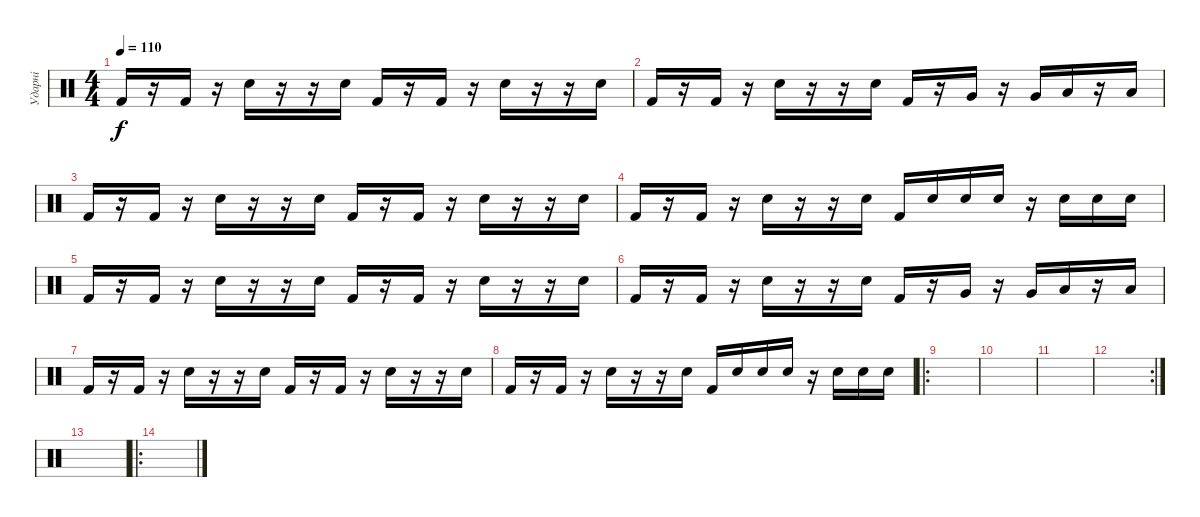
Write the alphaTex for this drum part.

\track ("Ударні" "Ударні") {instrument percussion}
\staff {score}
\articulation defaults
\ts (4 4)
\tempo 110
\clef neutral
\ks c "Kick (hit) 2".16{dy f volume 14}
r.16 "Kick (hit) 2".16 r.16 "Electric Snare (hit)".16 r.16 r.16 "Electric Snare (hit)".16 "Kick (hit) 2".16 r.16 "Kick (hit) 2".16 r.16 "Electric Snare (hit)".16 r.16 r.16 "Electric Snare (hit)".16 |
"Kick (hit) 2".16{volume 14} r.16 "Kick (hit) 2".16 r.16 "Electric Snare (hit)".16 r.16 r.16 "Electric Snare (hit)".16 "Kick (hit) 2".16 r.16 "Very Low Tom (hit)".16 r.16 "Very Low Tom (hit)".16 "Low Floor Tom (hit)".16 r.16 "Low Floor Tom (hit)".16 |
"Kick (hit) 2".16{volume 14} r.16 "Kick (hit) 2".16 r.16 "Electric Snare (hit)".16 r.16 r.16 "Electric Snare (hit)".16 "Kick (hit) 2".16 r.16 "Kick (hit) 2".16 r.16 "Electric Snare (hit)".16 r.16 r.16 "Electric Snare (hit)".16 |
"Kick (hit) 2".16{volume 14} r.16 "Kick (hit) 2".16 r.16 "Electric Snare (hit)".16 r.16 r.16 "Electric Snare (hit)".16 "Kick (hit) 2".16 "Electric Snare (hit)".16 "Electric Snare (hit)".16 "Electric Snare (hit)".16 r.16 "Electric Snare (hit)".16 "Electric Snare (hit)".16 "Electric Snare (hit)".16 |
"Kick (hit) 2".16{volume 14} r.16 "Kick (hit) 2".16 r.16 "Electric Snare (hit)".16 r.16 r.16 "Electric Snare (hit)".16 "Kick (hit) 2".16 r.16 "Kick (hit) 2".16 r.16 "Electric Snare (hit)".16 r.16 r.16 "Electric Snare (hit)".16 |
"Kick (hit) 2".16{volume 14} r.16 "Kick (hit) 2".16 r.16 "Electric Snare (hit)".16 r.16 r.16 "Electric Snare (hit)".16 "Kick (hit) 2".16 r.16 "Very Low Tom (hit)".16 r.16 "Very Low Tom (hit)".16 "Low Floor Tom (hit)".16 r.16 "Low Floor Tom (hit)".16 |
"Kick (hit) 2".16{volume 14} r.16 "Kick (hit) 2".16 r.16 "Electric Snare (hit)".16 r.16 r.16 "Electric Snare (hit)".16 "Kick (hit) 2".16 r.16 "Kick (hit) 2".16 r.16 "Electric Snare (hit)".16 r.16 r.16 "Electric Snare (hit)".16 |
"Kick (hit) 2".16{volume 14} r.16 "Kick (hit) 2".16 r.16 "Electric Snare (hit)".16 r.16 r.16 "Electric Snare (hit)".16 "Kick (hit) 2".16 "Electric Snare (hit)".16 "Electric Snare (hit)".16 "Electric Snare (hit)".16 r.16 "Electric Snare (hit)".16 "Electric Snare (hit)".16 "Electric Snare (hit)".16 |
\ro
|
|
|
\rc 2
|
|
\ro
